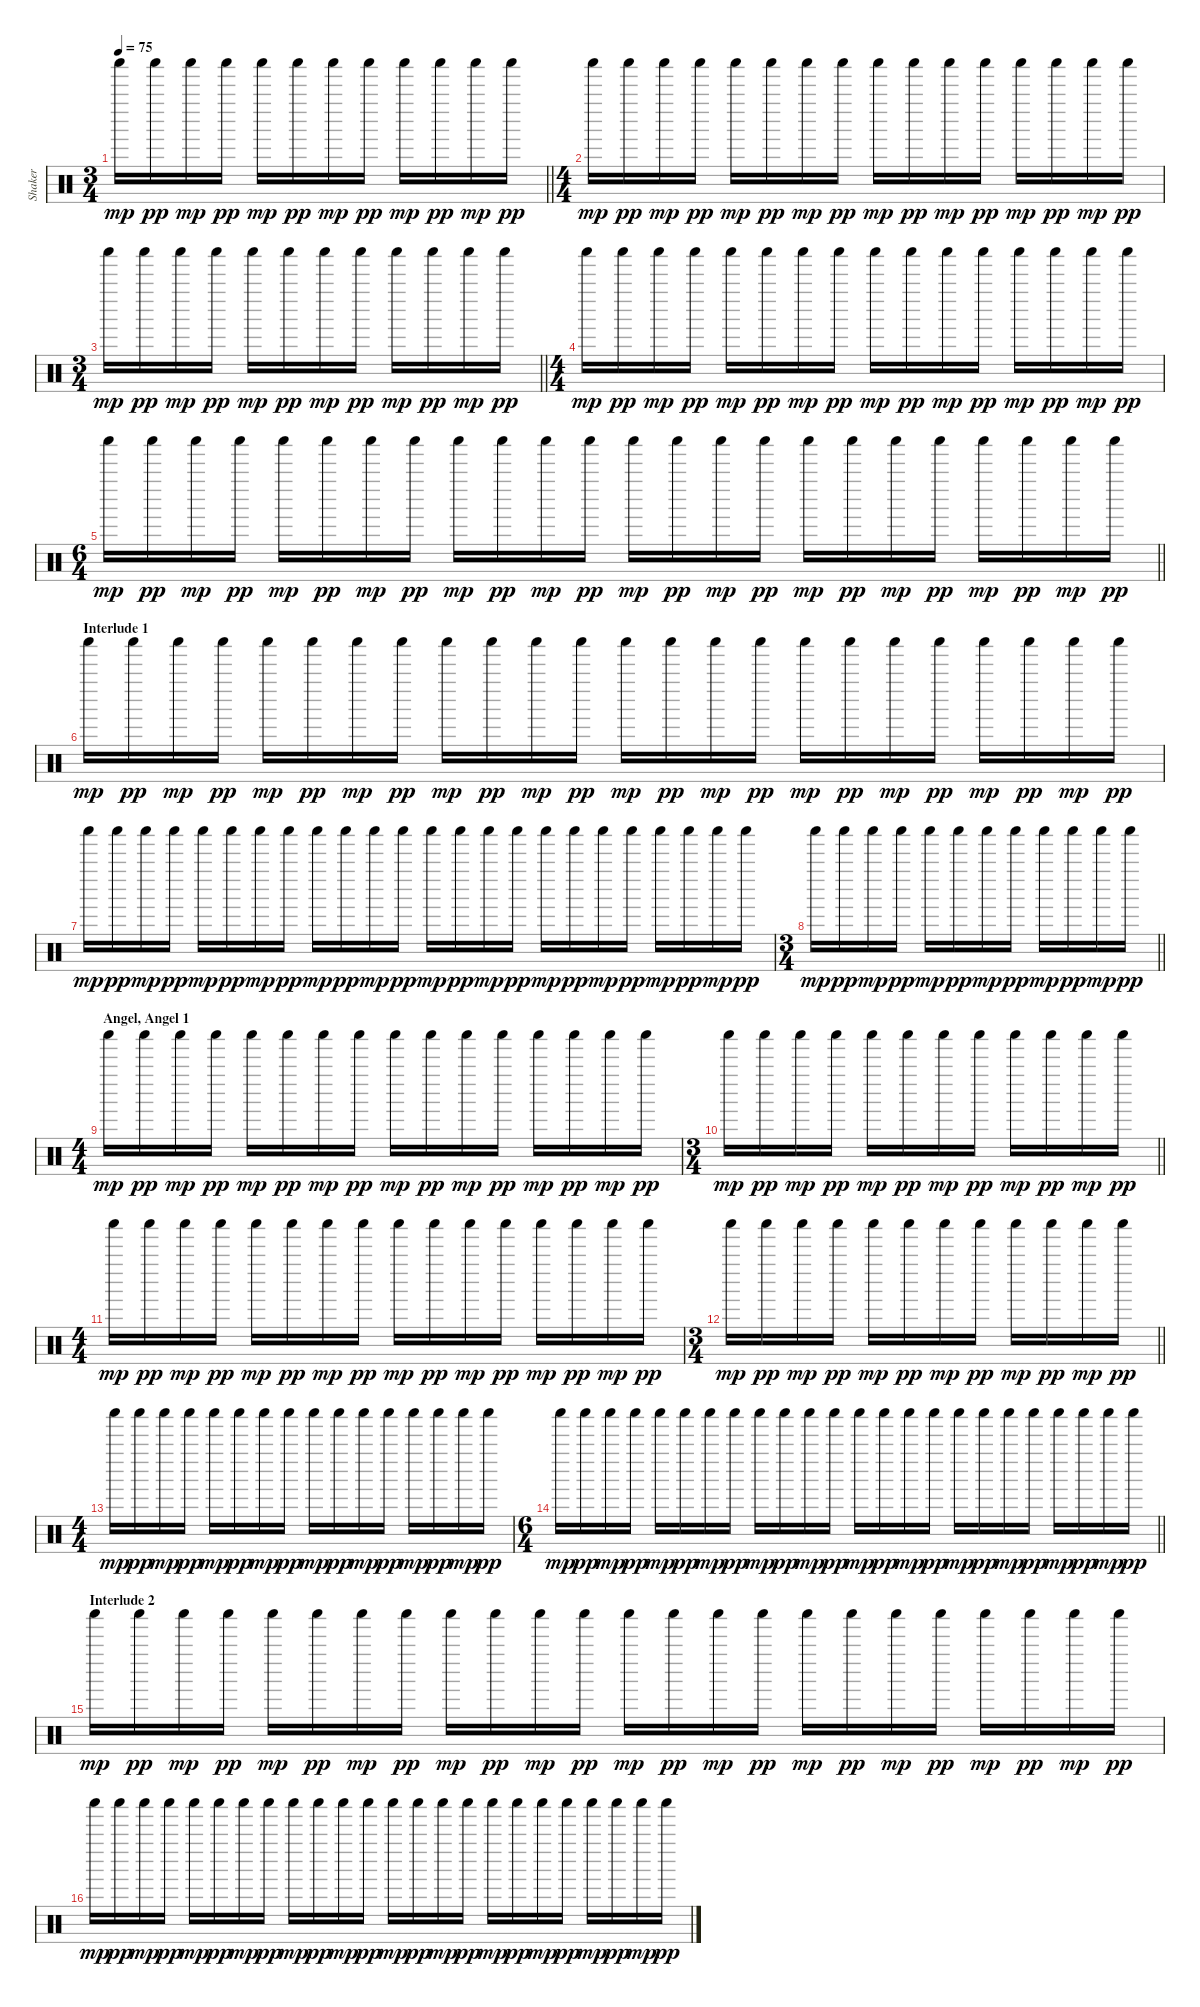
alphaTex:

\track ("Shaker" "Shaker") {instrument percussion}
\staff {score}
\articulation defaults
\ts (3 4)
\tempo 75
\clef neutral
\barLineRight lightlight
\ks c "Shaker (hit)".16{dy mp} "Shaker (hit)".16{dy pp} "Shaker (hit)".16{dy mp} "Shaker (hit)".16{dy pp} "Shaker (hit)".16{dy mp} "Shaker (hit)".16{dy pp} "Shaker (hit)".16{dy mp} "Shaker (hit)".16{dy pp} "Shaker (hit)".16{dy mp} "Shaker (hit)".16{dy pp} "Shaker (hit)".16{dy mp} "Shaker (hit)".16{dy pp}
|
\ts (4 4)
"Shaker (hit)".16{dy mp} "Shaker (hit)".16{dy pp} "Shaker (hit)".16{dy mp} "Shaker (hit)".16{dy pp} "Shaker (hit)".16{dy mp} "Shaker (hit)".16{dy pp} "Shaker (hit)".16{dy mp} "Shaker (hit)".16{dy pp} "Shaker (hit)".16{dy mp} "Shaker (hit)".16{dy pp} "Shaker (hit)".16{dy mp} "Shaker (hit)".16{dy pp} "Shaker (hit)".16{dy mp} "Shaker (hit)".16{dy pp} "Shaker (hit)".16{dy mp} "Shaker (hit)".16{dy pp} |
\ts (3 4)
\barLineRight lightlight "Shaker (hit)".16{dy mp} "Shaker (hit)".16{dy pp} "Shaker (hit)".16{dy mp} "Shaker (hit)".16{dy pp} "Shaker (hit)".16{dy mp} "Shaker (hit)".16{dy pp} "Shaker (hit)".16{dy mp} "Shaker (hit)".16{dy pp} "Shaker (hit)".16{dy mp} "Shaker (hit)".16{dy pp} "Shaker (hit)".16{dy mp} "Shaker (hit)".16{dy pp}
|
\ts (4 4)
"Shaker (hit)".16{dy mp} "Shaker (hit)".16{dy pp} "Shaker (hit)".16{dy mp} "Shaker (hit)".16{dy pp} "Shaker (hit)".16{dy mp} "Shaker (hit)".16{dy pp} "Shaker (hit)".16{dy mp} "Shaker (hit)".16{dy pp} "Shaker (hit)".16{dy mp} "Shaker (hit)".16{dy pp} "Shaker (hit)".16{dy mp} "Shaker (hit)".16{dy pp} "Shaker (hit)".16{dy mp} "Shaker (hit)".16{dy pp} "Shaker (hit)".16{dy mp} "Shaker (hit)".16{dy pp} |
\ts (6 4)
\barLineRight lightlight "Shaker (hit)".16{dy mp} "Shaker (hit)".16{dy pp} "Shaker (hit)".16{dy mp} "Shaker (hit)".16{dy pp} "Shaker (hit)".16{dy mp} "Shaker (hit)".16{dy pp} "Shaker (hit)".16{dy mp} "Shaker (hit)".16{dy pp} "Shaker (hit)".16{dy mp} "Shaker (hit)".16{dy pp} "Shaker (hit)".16{dy mp} "Shaker (hit)".16{dy pp} "Shaker (hit)".16{dy mp} "Shaker (hit)".16{dy pp} "Shaker (hit)".16{dy mp} "Shaker (hit)".16{dy pp} "Shaker (hit)".16{dy mp} "Shaker (hit)".16{dy pp} "Shaker (hit)".16{dy mp} "Shaker (hit)".16{dy pp} "Shaker (hit)".16{dy mp} "Shaker (hit)".16{dy pp} "Shaker (hit)".16{dy mp} "Shaker (hit)".16{dy pp}
|
\section ("" "Interlude 1")
"Shaker (hit)".16{dy mp} "Shaker (hit)".16{dy pp} "Shaker (hit)".16{dy mp} "Shaker (hit)".16{dy pp} "Shaker (hit)".16{dy mp} "Shaker (hit)".16{dy pp} "Shaker (hit)".16{dy mp} "Shaker (hit)".16{dy pp} "Shaker (hit)".16{dy mp} "Shaker (hit)".16{dy pp} "Shaker (hit)".16{dy mp} "Shaker (hit)".16{dy pp} "Shaker (hit)".16{dy mp} "Shaker (hit)".16{dy pp} "Shaker (hit)".16{dy mp} "Shaker (hit)".16{dy pp} "Shaker (hit)".16{dy mp} "Shaker (hit)".16{dy pp} "Shaker (hit)".16{dy mp} "Shaker (hit)".16{dy pp} "Shaker (hit)".16{dy mp} "Shaker (hit)".16{dy pp} "Shaker (hit)".16{dy mp} "Shaker (hit)".16{dy pp} |
"Shaker (hit)".16{dy mp} "Shaker (hit)".16{dy pp} "Shaker (hit)".16{dy mp} "Shaker (hit)".16{dy pp} "Shaker (hit)".16{dy mp} "Shaker (hit)".16{dy pp} "Shaker (hit)".16{dy mp} "Shaker (hit)".16{dy pp} "Shaker (hit)".16{dy mp} "Shaker (hit)".16{dy pp} "Shaker (hit)".16{dy mp} "Shaker (hit)".16{dy pp} "Shaker (hit)".16{dy mp} "Shaker (hit)".16{dy pp} "Shaker (hit)".16{dy mp} "Shaker (hit)".16{dy pp} "Shaker (hit)".16{dy mp} "Shaker (hit)".16{dy pp} "Shaker (hit)".16{dy mp} "Shaker (hit)".16{dy pp} "Shaker (hit)".16{dy mp} "Shaker (hit)".16{dy pp} "Shaker (hit)".16{dy mp} "Shaker (hit)".16{dy pp} |
\ts (3 4)
\barLineRight lightlight "Shaker (hit)".16{dy mp} "Shaker (hit)".16{dy pp} "Shaker (hit)".16{dy mp} "Shaker (hit)".16{dy pp} "Shaker (hit)".16{dy mp} "Shaker (hit)".16{dy pp} "Shaker (hit)".16{dy mp} "Shaker (hit)".16{dy pp} "Shaker (hit)".16{dy mp} "Shaker (hit)".16{dy pp} "Shaker (hit)".16{dy mp} "Shaker (hit)".16{dy pp}
|
\ts (4 4)
\section ("" "Angel, Angel 1")
"Shaker (hit)".16{dy mp} "Shaker (hit)".16{dy pp} "Shaker (hit)".16{dy mp} "Shaker (hit)".16{dy pp} "Shaker (hit)".16{dy mp} "Shaker (hit)".16{dy pp} "Shaker (hit)".16{dy mp} "Shaker (hit)".16{dy pp} "Shaker (hit)".16{dy mp} "Shaker (hit)".16{dy pp} "Shaker (hit)".16{dy mp} "Shaker (hit)".16{dy pp} "Shaker (hit)".16{dy mp} "Shaker (hit)".16{dy pp} "Shaker (hit)".16{dy mp} "Shaker (hit)".16{dy pp} |
\ts (3 4)
\barLineRight lightlight "Shaker (hit)".16{dy mp} "Shaker (hit)".16{dy pp} "Shaker (hit)".16{dy mp} "Shaker (hit)".16{dy pp} "Shaker (hit)".16{dy mp} "Shaker (hit)".16{dy pp} "Shaker (hit)".16{dy mp} "Shaker (hit)".16{dy pp} "Shaker (hit)".16{dy mp} "Shaker (hit)".16{dy pp} "Shaker (hit)".16{dy mp} "Shaker (hit)".16{dy pp}
|
\ts (4 4)
"Shaker (hit)".16{dy mp} "Shaker (hit)".16{dy pp} "Shaker (hit)".16{dy mp} "Shaker (hit)".16{dy pp} "Shaker (hit)".16{dy mp} "Shaker (hit)".16{dy pp} "Shaker (hit)".16{dy mp} "Shaker (hit)".16{dy pp} "Shaker (hit)".16{dy mp} "Shaker (hit)".16{dy pp} "Shaker (hit)".16{dy mp} "Shaker (hit)".16{dy pp} "Shaker (hit)".16{dy mp} "Shaker (hit)".16{dy pp} "Shaker (hit)".16{dy mp} "Shaker (hit)".16{dy pp} |
\ts (3 4)
\barLineRight lightlight "Shaker (hit)".16{dy mp} "Shaker (hit)".16{dy pp} "Shaker (hit)".16{dy mp} "Shaker (hit)".16{dy pp} "Shaker (hit)".16{dy mp} "Shaker (hit)".16{dy pp} "Shaker (hit)".16{dy mp} "Shaker (hit)".16{dy pp} "Shaker (hit)".16{dy mp} "Shaker (hit)".16{dy pp} "Shaker (hit)".16{dy mp} "Shaker (hit)".16{dy pp}
|
\ts (4 4)
"Shaker (hit)".16{dy mp} "Shaker (hit)".16{dy pp} "Shaker (hit)".16{dy mp} "Shaker (hit)".16{dy pp} "Shaker (hit)".16{dy mp} "Shaker (hit)".16{dy pp} "Shaker (hit)".16{dy mp} "Shaker (hit)".16{dy pp} "Shaker (hit)".16{dy mp} "Shaker (hit)".16{dy pp} "Shaker (hit)".16{dy mp} "Shaker (hit)".16{dy pp} "Shaker (hit)".16{dy mp} "Shaker (hit)".16{dy pp} "Shaker (hit)".16{dy mp} "Shaker (hit)".16{dy pp} |
\ts (6 4)
\barLineRight lightlight "Shaker (hit)".16{dy mp} "Shaker (hit)".16{dy pp} "Shaker (hit)".16{dy mp} "Shaker (hit)".16{dy pp} "Shaker (hit)".16{dy mp} "Shaker (hit)".16{dy pp} "Shaker (hit)".16{dy mp} "Shaker (hit)".16{dy pp} "Shaker (hit)".16{dy mp} "Shaker (hit)".16{dy pp} "Shaker (hit)".16{dy mp} "Shaker (hit)".16{dy pp} "Shaker (hit)".16{dy mp} "Shaker (hit)".16{dy pp} "Shaker (hit)".16{dy mp} "Shaker (hit)".16{dy pp} "Shaker (hit)".16{dy mp} "Shaker (hit)".16{dy pp} "Shaker (hit)".16{dy mp} "Shaker (hit)".16{dy pp} "Shaker (hit)".16{dy mp} "Shaker (hit)".16{dy pp} "Shaker (hit)".16{dy mp} "Shaker (hit)".16{dy pp}
|
\section ("" "Interlude 2")
"Shaker (hit)".16{dy mp} "Shaker (hit)".16{dy pp} "Shaker (hit)".16{dy mp} "Shaker (hit)".16{dy pp} "Shaker (hit)".16{dy mp} "Shaker (hit)".16{dy pp} "Shaker (hit)".16{dy mp} "Shaker (hit)".16{dy pp} "Shaker (hit)".16{dy mp} "Shaker (hit)".16{dy pp} "Shaker (hit)".16{dy mp} "Shaker (hit)".16{dy pp} "Shaker (hit)".16{dy mp} "Shaker (hit)".16{dy pp} "Shaker (hit)".16{dy mp} "Shaker (hit)".16{dy pp} "Shaker (hit)".16{dy mp} "Shaker (hit)".16{dy pp} "Shaker (hit)".16{dy mp} "Shaker (hit)".16{dy pp} "Shaker (hit)".16{dy mp} "Shaker (hit)".16{dy pp} "Shaker (hit)".16{dy mp} "Shaker (hit)".16{dy pp} |
"Shaker (hit)".16{dy mp} "Shaker (hit)".16{dy pp} "Shaker (hit)".16{dy mp} "Shaker (hit)".16{dy pp} "Shaker (hit)".16{dy mp} "Shaker (hit)".16{dy pp} "Shaker (hit)".16{dy mp} "Shaker (hit)".16{dy pp} "Shaker (hit)".16{dy mp} "Shaker (hit)".16{dy pp} "Shaker (hit)".16{dy mp} "Shaker (hit)".16{dy pp} "Shaker (hit)".16{dy mp} "Shaker (hit)".16{dy pp} "Shaker (hit)".16{dy mp} "Shaker (hit)".16{dy pp} "Shaker (hit)".16{dy mp} "Shaker (hit)".16{dy pp} "Shaker (hit)".16{dy mp} "Shaker (hit)".16{dy pp} "Shaker (hit)".16{dy mp} "Shaker (hit)".16{dy pp} "Shaker (hit)".16{dy mp} "Shaker (hit)".16{dy pp}
